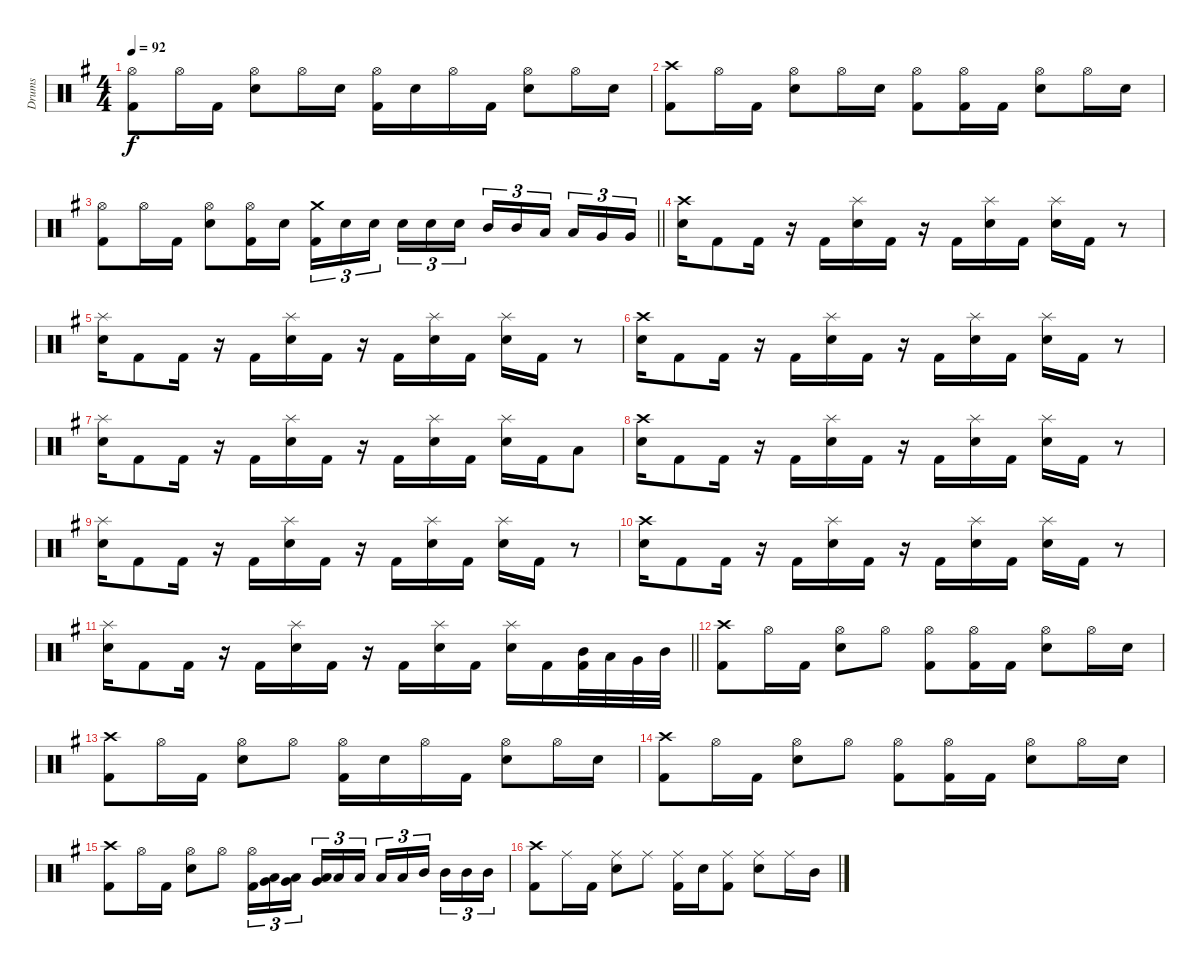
\track ("Drums" "Drums") {instrument percussion}
\staff {score}
\articulation defaults
\ts (4 4)
\tempo 92
\clef neutral
\ks g
("Hi-Hat (open)" "Kick (hit) 2").8{dy f} "Hi-Hat (open)".16 "Kick (hit) 2".16 ("Hi-Hat (open)" "Electric Snare (hit)").8 "Hi-Hat (open)".16 "Electric Snare (hit)".16 ("Hi-Hat (open)" "Kick (hit) 2").16 "Electric Snare (hit)".16 "Hi-Hat (open)".16 "Kick (hit) 2".16 ("Hi-Hat (open)" "Electric Snare (hit)").8 "Hi-Hat (open)".16 "Electric Snare (hit)".16 |
("Crash high (hit)" "Kick (hit) 2").8 "Hi-Hat (open)".16 "Kick (hit) 2".16 ("Hi-Hat (open)" "Electric Snare (hit)").8 "Hi-Hat (open)".16 "Electric Snare (hit)".16 ("Hi-Hat (open)" "Kick (hit) 2").8 ("Hi-Hat (open)" "Kick (hit) 2").16 "Kick (hit) 2".16 ("Hi-Hat (open)" "Electric Snare (hit)").8 "Hi-Hat (open)".16 "Electric Snare (hit)".16 |
\barLineRight lightlight
("Hi-Hat (open)" "Kick (hit) 2").8 "Hi-Hat (open)".16 "Kick (hit) 2".16 ("Hi-Hat (open)" "Electric Snare (hit)").8 ("Hi-Hat (open)" "Kick (hit) 2").16 "Electric Snare (hit)".16 ("Crash medium (hit)" "Kick (hit) 2").16{tu (3 2)} "Electric Snare (hit)".16{tu (3 2)} "Electric Snare (hit)".16{tu (3 2) beam splitsecondary} "Electric Snare (hit)".16{tu (3 2)} "Electric Snare (hit)".16{tu (3 2)} "Electric Snare (hit)".16{tu (3 2)} "Mid Tom (hit)".16{tu (3 2)} "Mid Tom (hit)".16{tu (3 2)} "Low Tom (hit)".16{tu (3 2) beam splitsecondary} "Low Tom (hit)".16{tu (3 2)} "Very Low Tom (hit)".16{tu (3 2)} "Very Low Tom (hit)".16{tu (3 2)} |
\section ("" "")
("Crash high (hit)" "Electric Snare (hit)").16 "Kick (hit) 2".8 "Kick (hit) 2".16 r.16 "Kick (hit) 2".16 ("Splash (hit)" "Electric Snare (hit)").16 "Kick (hit) 2".16 r.16 "Kick (hit) 2".16 ("Splash (hit)" "Electric Snare (hit)").16 "Kick (hit) 2".16 ("Splash (hit)" "Electric Snare (hit)").16 "Kick (hit) 2".16 r.8 |
("Splash (hit)" "Electric Snare (hit)").16 "Kick (hit) 2".8 "Kick (hit) 2".16 r.16 "Kick (hit) 2".16 ("Splash (hit)" "Electric Snare (hit)").16 "Kick (hit) 2".16 r.16 "Kick (hit) 2".16 ("Splash (hit)" "Electric Snare (hit)").16 "Kick (hit) 2".16 ("Splash (hit)" "Electric Snare (hit)").16 "Kick (hit) 2".16 r.8 |
("Crash high (hit)" "Electric Snare (hit)").16 "Kick (hit) 2".8 "Kick (hit) 2".16 r.16 "Kick (hit) 2".16 ("Splash (hit)" "Electric Snare (hit)").16 "Kick (hit) 2".16 r.16 "Kick (hit) 2".16 ("Splash (hit)" "Electric Snare (hit)").16 "Kick (hit) 2".16 ("Splash (hit)" "Electric Snare (hit)").16 "Kick (hit) 2".16 r.8 |
("Splash (hit)" "Electric Snare (hit)").16 "Kick (hit) 2".8 "Kick (hit) 2".16 r.16 "Kick (hit) 2".16 ("Splash (hit)" "Electric Snare (hit)").16 "Kick (hit) 2".16 r.16 "Kick (hit) 2".16 ("Splash (hit)" "Electric Snare (hit)").16 "Kick (hit) 2".16 ("Splash (hit)" "Electric Snare (hit)").16 "Kick (hit) 2".16 "Low Tom (hit)".8 |
("Crash high (hit)" "Electric Snare (hit)").16 "Kick (hit) 2".8 "Kick (hit) 2".16 r.16 "Kick (hit) 2".16 ("Splash (hit)" "Electric Snare (hit)").16 "Kick (hit) 2".16 r.16 "Kick (hit) 2".16 ("Splash (hit)" "Electric Snare (hit)").16 "Kick (hit) 2".16 ("Splash (hit)" "Electric Snare (hit)").16 "Kick (hit) 2".16 r.8 |
("Splash (hit)" "Electric Snare (hit)").16 "Kick (hit) 2".8 "Kick (hit) 2".16 r.16 "Kick (hit) 2".16 ("Splash (hit)" "Electric Snare (hit)").16 "Kick (hit) 2".16 r.16 "Kick (hit) 2".16 ("Splash (hit)" "Electric Snare (hit)").16 "Kick (hit) 2".16 ("Splash (hit)" "Electric Snare (hit)").16 "Kick (hit) 2".16 r.8 |
("Crash high (hit)" "Electric Snare (hit)").16 "Kick (hit) 2".8 "Kick (hit) 2".16 r.16 "Kick (hit) 2".16 ("Splash (hit)" "Electric Snare (hit)").16 "Kick (hit) 2".16 r.16 "Kick (hit) 2".16 ("Splash (hit)" "Electric Snare (hit)").16 "Kick (hit) 2".16 ("Splash (hit)" "Electric Snare (hit)").16 "Kick (hit) 2".16 r.8 |
\barLineRight lightlight
("Splash (hit)" "Electric Snare (hit)").16 "Kick (hit) 2".8 "Kick (hit) 2".16 r.16 "Kick (hit) 2".16 ("Splash (hit)" "Electric Snare (hit)").16 "Kick (hit) 2".16 r.16 "Kick (hit) 2".16 ("Splash (hit)" "Electric Snare (hit)").16 "Kick (hit) 2".16 ("Splash (hit)" "Electric Snare (hit)").16 "Kick (hit) 2".16 ("Mid Tom (hit)" "Kick (hit) 2").32 "Low Tom (hit)".32 "Very Low Tom (hit)".32 "Mid Tom (hit)".32 |
\section ("" "")
("Crash high (hit)" "Kick (hit) 2").8 "Hi-Hat (open)".16 "Kick (hit) 2".16 ("Hi-Hat (open)" "Electric Snare (hit)").8 "Hi-Hat (open)".8 ("Hi-Hat (open)" "Kick (hit) 2").8 ("Hi-Hat (open)" "Kick (hit) 2").16 "Kick (hit) 2".16 ("Hi-Hat (open)" "Electric Snare (hit)").8 "Hi-Hat (open)".16 "Electric Snare (hit)".16 |
("Crash high (hit)" "Kick (hit) 2").8 "Hi-Hat (open)".16 "Kick (hit) 2".16 ("Hi-Hat (open)" "Electric Snare (hit)").8 "Hi-Hat (open)".8 ("Hi-Hat (open)" "Kick (hit) 2").16 "Electric Snare (hit)".16 "Hi-Hat (open)".16 "Kick (hit) 2".16 ("Hi-Hat (open)" "Electric Snare (hit)").8 "Hi-Hat (open)".16 "Electric Snare (hit)".16 |
("Crash high (hit)" "Kick (hit) 2").8 "Hi-Hat (open)".16 "Kick (hit) 2".16 ("Hi-Hat (open)" "Electric Snare (hit)").8 "Hi-Hat (open)".8 ("Hi-Hat (open)" "Kick (hit) 2").8 ("Hi-Hat (open)" "Kick (hit) 2").16 "Kick (hit) 2".16 ("Hi-Hat (open)" "Electric Snare (hit)").8 "Hi-Hat (open)".16 "Electric Snare (hit)".16 |
("Crash high (hit)" "Kick (hit) 2").8 "Hi-Hat (open)".16 "Kick (hit) 2".16 ("Hi-Hat (open)" "Electric Snare (hit)").8 "Hi-Hat (open)".8 ("Hi-Hat (open)" "Kick (hit) 2").16{tu (3 2)} ("Very Low Tom (hit)" "Low Floor Tom (hit)").16{tu (3 2)} ("Very Low Tom (hit)" "Low Floor Tom (hit)").16{tu (3 2) beam splitsecondary} ("Very Low Tom (hit)" "Low Floor Tom (hit)").16{tu (3 2)} "Low Tom (hit)".16{tu (3 2)} "Low Tom (hit)".16{tu (3 2)} "Low Tom (hit)".16{tu (3 2)} "Low Tom (hit)".16{tu (3 2)} "Mid Tom (hit)".16{tu (3 2) beam splitsecondary} "Mid Tom (hit)".16{tu (3 2)} "Mid Tom (hit)".16{tu (3 2)} "Mid Tom (hit)".16{tu (3 2)} |
("Crash high (hit)" "Kick (hit) 2").8 "Ride (middle)".16 "Kick (hit) 2".16 ("Ride (middle)" "Electric Snare (hit)").8 "Ride (middle)".8 ("Ride (middle)" "Kick (hit) 2").16 "Electric Snare (hit)".16 ("Ride (middle)" "Kick (hit) 2").8 ("Ride (middle)" "Electric Snare (hit)").8 "Ride (middle)".16 "Mid Tom (hit)".16
